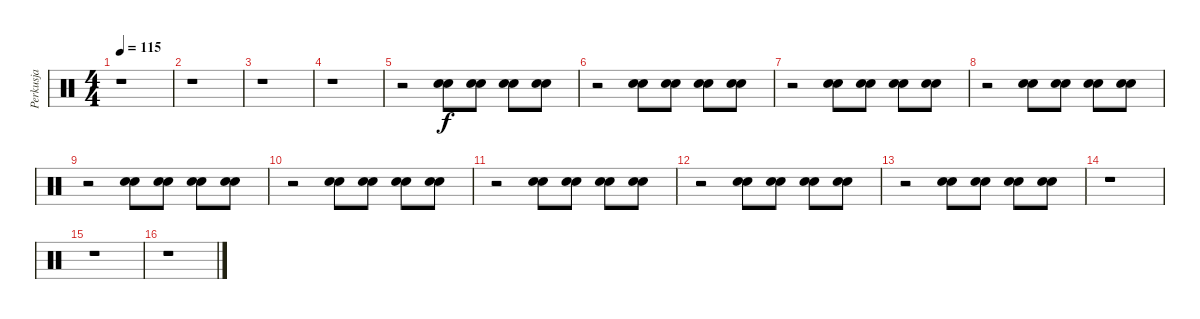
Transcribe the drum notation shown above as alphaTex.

\track ("Perkusja" "Perkusja") {instrument percussion}
\staff {score}
\articulation defaults
\ts (4 4)
\tempo 115
\clef neutral
\ks c
r.1{dy f} |
r.1 |
r.1 |
r.1 |
r.2 ("Hand Clap (hit)" "Hand Clap (hit)").8 ("Hand Clap (hit)" "Hand Clap (hit)").8 ("Hand Clap (hit)" "Hand Clap (hit)").8 ("Hand Clap (hit)" "Hand Clap (hit)").8 |
r.2 ("Hand Clap (hit)" "Hand Clap (hit)").8 ("Hand Clap (hit)" "Hand Clap (hit)").8 ("Hand Clap (hit)" "Hand Clap (hit)").8 ("Hand Clap (hit)" "Hand Clap (hit)").8 |
r.2 ("Hand Clap (hit)" "Hand Clap (hit)").8 ("Hand Clap (hit)" "Hand Clap (hit)").8 ("Hand Clap (hit)" "Hand Clap (hit)").8 ("Hand Clap (hit)" "Hand Clap (hit)").8 |
r.2 ("Hand Clap (hit)" "Hand Clap (hit)").8 ("Hand Clap (hit)" "Hand Clap (hit)").8 ("Hand Clap (hit)" "Hand Clap (hit)").8 ("Hand Clap (hit)" "Hand Clap (hit)").8 |
r.2 ("Hand Clap (hit)" "Hand Clap (hit)").8 ("Hand Clap (hit)" "Hand Clap (hit)").8 ("Hand Clap (hit)" "Hand Clap (hit)").8 ("Hand Clap (hit)" "Hand Clap (hit)").8 |
r.2 ("Hand Clap (hit)" "Hand Clap (hit)").8 ("Hand Clap (hit)" "Hand Clap (hit)").8 ("Hand Clap (hit)" "Hand Clap (hit)").8 ("Hand Clap (hit)" "Hand Clap (hit)").8 |
r.2 ("Hand Clap (hit)" "Hand Clap (hit)").8 ("Hand Clap (hit)" "Hand Clap (hit)").8 ("Hand Clap (hit)" "Hand Clap (hit)").8 ("Hand Clap (hit)" "Hand Clap (hit)").8 |
r.2 ("Hand Clap (hit)" "Hand Clap (hit)").8 ("Hand Clap (hit)" "Hand Clap (hit)").8 ("Hand Clap (hit)" "Hand Clap (hit)").8 ("Hand Clap (hit)" "Hand Clap (hit)").8 |
r.2 ("Hand Clap (hit)" "Hand Clap (hit)").8 ("Hand Clap (hit)" "Hand Clap (hit)").8 ("Hand Clap (hit)" "Hand Clap (hit)").8 ("Hand Clap (hit)" "Hand Clap (hit)").8 |
r.1 |
r.1 |
r.1
